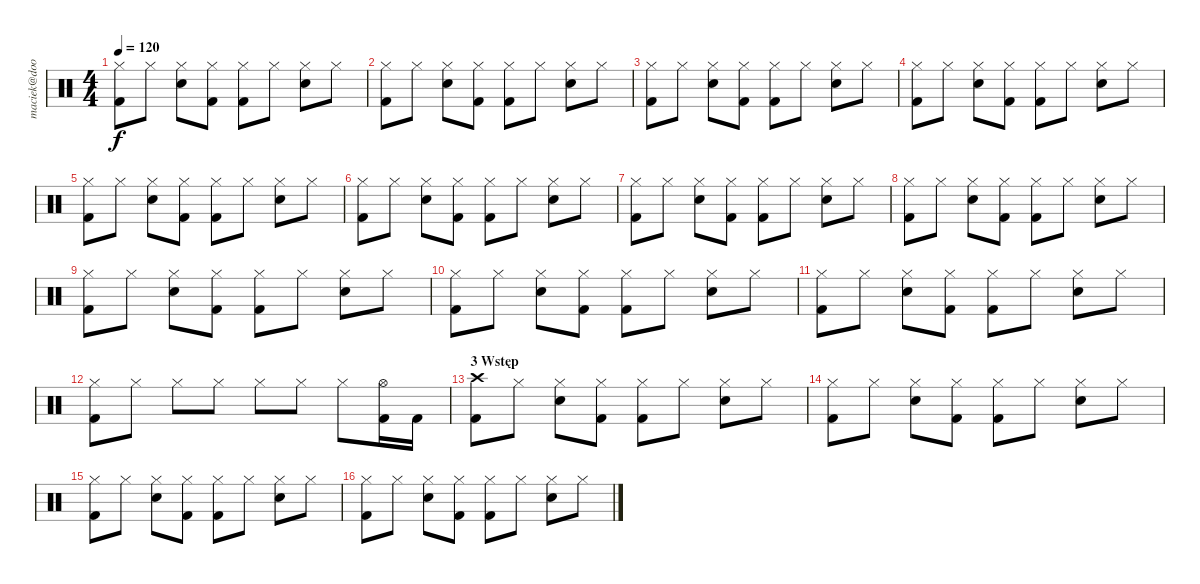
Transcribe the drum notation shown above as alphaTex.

\track ("maciek@doorpol.com" "maciek@doo") {instrument percussion}
\staff {score}
\articulation defaults
\ts (4 4)
\tempo 120
\clef neutral
\ks c
("Hi-Hat (closed)" "Kick (hit) 2").8{dy f} "Hi-Hat (closed)".8 ("Hi-Hat (closed)" "Snare (hit) 2").8 ("Hi-Hat (closed)" "Kick (hit) 2").8 ("Hi-Hat (closed)" "Kick (hit) 2").8 "Hi-Hat (closed)".8 ("Hi-Hat (closed)" "Snare (hit) 2").8 "Hi-Hat (closed)".8 |
("Hi-Hat (closed)" "Kick (hit) 2").8 "Hi-Hat (closed)".8 ("Hi-Hat (closed)" "Snare (hit) 2").8 ("Hi-Hat (closed)" "Kick (hit) 2").8 ("Hi-Hat (closed)" "Kick (hit) 2").8 "Hi-Hat (closed)".8 ("Hi-Hat (closed)" "Snare (hit) 2").8 "Hi-Hat (closed)".8 |
("Hi-Hat (closed)" "Kick (hit) 2").8 "Hi-Hat (closed)".8 ("Hi-Hat (closed)" "Snare (hit) 2").8 ("Hi-Hat (closed)" "Kick (hit) 2").8 ("Hi-Hat (closed)" "Kick (hit) 2").8 "Hi-Hat (closed)".8 ("Hi-Hat (closed)" "Snare (hit) 2").8 "Hi-Hat (closed)".8 |
("Hi-Hat (closed)" "Kick (hit) 2").8 "Hi-Hat (closed)".8 ("Hi-Hat (closed)" "Snare (hit) 2").8 ("Hi-Hat (closed)" "Kick (hit) 2").8 ("Hi-Hat (closed)" "Kick (hit) 2").8 "Hi-Hat (closed)".8 ("Hi-Hat (closed)" "Snare (hit) 2").8 "Hi-Hat (closed)".8 |
("Hi-Hat (closed)" "Kick (hit) 2").8 "Hi-Hat (closed)".8 ("Hi-Hat (closed)" "Snare (hit) 2").8 ("Hi-Hat (closed)" "Kick (hit) 2").8 ("Hi-Hat (closed)" "Kick (hit) 2").8 "Hi-Hat (closed)".8 ("Hi-Hat (closed)" "Snare (hit) 2").8 "Hi-Hat (closed)".8 |
("Hi-Hat (closed)" "Kick (hit) 2").8 "Hi-Hat (closed)".8 ("Hi-Hat (closed)" "Snare (hit) 2").8 ("Hi-Hat (closed)" "Kick (hit) 2").8 ("Hi-Hat (closed)" "Kick (hit) 2").8 "Hi-Hat (closed)".8 ("Hi-Hat (closed)" "Snare (hit) 2").8 "Hi-Hat (closed)".8 |
("Hi-Hat (closed)" "Kick (hit) 2").8 "Hi-Hat (closed)".8 ("Hi-Hat (closed)" "Snare (hit) 2").8 ("Hi-Hat (closed)" "Kick (hit) 2").8 ("Hi-Hat (closed)" "Kick (hit) 2").8 "Hi-Hat (closed)".8 ("Hi-Hat (closed)" "Snare (hit) 2").8 "Hi-Hat (closed)".8 |
("Hi-Hat (closed)" "Kick (hit) 2").8 "Hi-Hat (closed)".8 ("Hi-Hat (closed)" "Snare (hit) 2").8 ("Hi-Hat (closed)" "Kick (hit) 2").8 ("Hi-Hat (closed)" "Kick (hit) 2").8 "Hi-Hat (closed)".8 ("Hi-Hat (closed)" "Snare (hit) 2").8 "Hi-Hat (closed)".8 |
("Hi-Hat (closed)" "Kick (hit) 2").8 "Hi-Hat (closed)".8 ("Hi-Hat (closed)" "Snare (hit) 2").8 ("Hi-Hat (closed)" "Kick (hit) 2").8 ("Hi-Hat (closed)" "Kick (hit) 2").8 "Hi-Hat (closed)".8 ("Hi-Hat (closed)" "Snare (hit) 2").8 "Hi-Hat (closed)".8 |
("Hi-Hat (closed)" "Kick (hit) 2").8 "Hi-Hat (closed)".8 ("Hi-Hat (closed)" "Snare (hit) 2").8 ("Hi-Hat (closed)" "Kick (hit) 2").8 ("Hi-Hat (closed)" "Kick (hit) 2").8 "Hi-Hat (closed)".8 ("Hi-Hat (closed)" "Snare (hit) 2").8 "Hi-Hat (closed)".8 |
("Hi-Hat (closed)" "Kick (hit) 2").8 "Hi-Hat (closed)".8 ("Hi-Hat (closed)" "Snare (hit) 2").8 ("Hi-Hat (closed)" "Kick (hit) 2").8 ("Hi-Hat (closed)" "Kick (hit) 2").8 "Hi-Hat (closed)".8 ("Hi-Hat (closed)" "Snare (hit) 2").8 "Hi-Hat (closed)".8 |
("Hi-Hat (closed)" "Kick (hit) 2").8 "Hi-Hat (closed)".8 "Hi-Hat (closed)".8 "Hi-Hat (closed)".8 "Hi-Hat (closed)".8 "Hi-Hat (closed)".8 "Hi-Hat (closed)".8 ("Hi-Hat (open)" "Kick (hit) 2").16 "Kick (hit) 2".16 |
\section ("" "3 Wstęp")
("Crash high (hit)" "Kick (hit) 2").8 "Hi-Hat (closed)".8 ("Hi-Hat (closed)" "Snare (hit) 2").8 ("Hi-Hat (closed)" "Kick (hit) 2").8 ("Hi-Hat (closed)" "Kick (hit) 2").8 "Hi-Hat (closed)".8 ("Hi-Hat (closed)" "Snare (hit) 2").8 "Hi-Hat (closed)".8 |
("Hi-Hat (closed)" "Kick (hit) 2").8 "Hi-Hat (closed)".8 ("Hi-Hat (closed)" "Snare (hit) 2").8 ("Hi-Hat (closed)" "Kick (hit) 2").8 ("Hi-Hat (closed)" "Kick (hit) 2").8 "Hi-Hat (closed)".8 ("Hi-Hat (closed)" "Snare (hit) 2").8 "Hi-Hat (closed)".8 |
("Hi-Hat (closed)" "Kick (hit) 2").8 "Hi-Hat (closed)".8 ("Hi-Hat (closed)" "Snare (hit) 2").8 ("Hi-Hat (closed)" "Kick (hit) 2").8 ("Hi-Hat (closed)" "Kick (hit) 2").8 "Hi-Hat (closed)".8 ("Hi-Hat (closed)" "Snare (hit) 2").8 "Hi-Hat (closed)".8 |
("Hi-Hat (closed)" "Kick (hit) 2").8 "Hi-Hat (closed)".8 ("Hi-Hat (closed)" "Snare (hit) 2").8 ("Hi-Hat (closed)" "Kick (hit) 2").8 ("Hi-Hat (closed)" "Kick (hit) 2").8 "Hi-Hat (closed)".8 ("Hi-Hat (closed)" "Snare (hit) 2").8 "Hi-Hat (closed)".8
